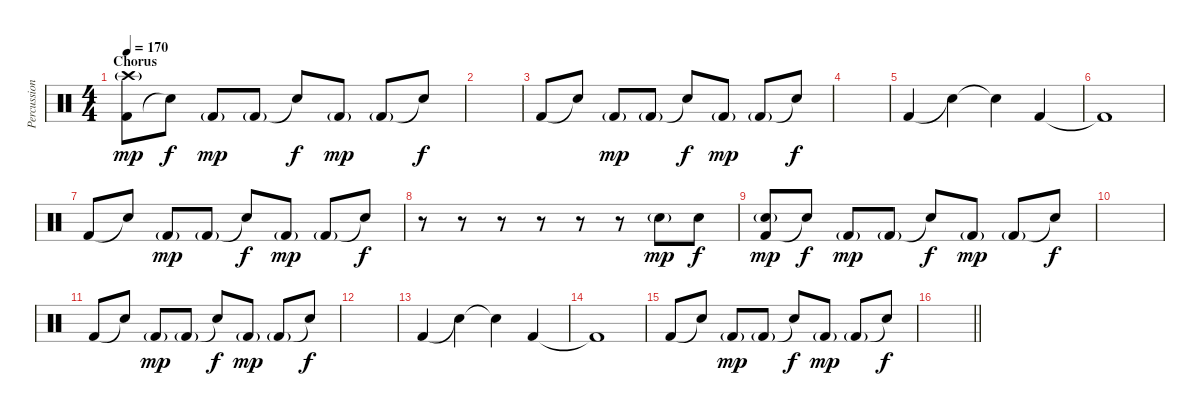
\track ("Percussion" "Percussion") {instrument percussion}
\staff {score}
\articulation defaults
\ts (4 4)
\section ("" "Chorus")
\tempo 170
\clef neutral
\ks c
("Kick (hit) 2" "Crash high (hit)"{g}).8{dy mp} "Snare (hit)"{t}.8{dy f} "Kick (hit) 2"{g}.8{dy mp} "Kick (hit) 2"{g}.8 "Snare (hit)"{t}.8{dy f} "Kick (hit) 2"{g}.8{dy mp} "Kick (hit) 2"{g}.8 "Snare (hit)"{t}.8{dy f} |
|
"Kick (hit) 2".8 "Snare (hit)"{t}.8 "Kick (hit) 2"{g}.8{dy mp} "Kick (hit) 2"{g}.8 "Snare (hit)"{t}.8{dy f} "Kick (hit) 2"{g}.8{dy mp} "Kick (hit) 2"{g}.8 "Snare (hit)"{t}.8{dy f} |
|
"Kick (hit) 2".4 "Snare (hit)"{t}.4 "Snare (hit)"{t}.4 "Kick (hit) 2".4 |
"Kick (hit) 2"{t}.1 |
"Kick (hit) 2".8 "Snare (hit)"{t}.8 "Kick (hit) 2"{g}.8{dy mp} "Kick (hit) 2"{g}.8 "Snare (hit)"{t}.8{dy f} "Kick (hit) 2"{g}.8{dy mp} "Kick (hit) 2"{g}.8 "Snare (hit)"{t}.8{dy f} |
r.8 r.8 r.8 r.8 r.8 r.8 "Electric Snare (hit)"{g}.8{dy mp} "Electric Snare (hit)".8{dy f} |
("Kick (hit) 2" "Electric Snare (hit)"{g}).8{dy mp} "Snare (hit)"{t}.8{dy f} "Kick (hit) 2"{g}.8{dy mp} "Kick (hit) 2"{g}.8 "Snare (hit)"{t}.8{dy f} "Kick (hit) 2"{g}.8{dy mp} "Kick (hit) 2"{g}.8 "Snare (hit)"{t}.8{dy f} |
|
"Kick (hit) 2".8 "Snare (hit)"{t}.8 "Kick (hit) 2"{g}.8{dy mp} "Kick (hit) 2"{g}.8 "Snare (hit)"{t}.8{dy f} "Kick (hit) 2"{g}.8{dy mp} "Kick (hit) 2"{g}.8 "Snare (hit)"{t}.8{dy f} |
|
"Kick (hit) 2".4 "Snare (hit)"{t}.4 "Snare (hit)"{t}.4 "Kick (hit) 2".4 |
"Kick (hit) 2"{t}.1 |
"Kick (hit) 2".8 "Snare (hit)"{t}.8 "Kick (hit) 2"{g}.8{dy mp} "Kick (hit) 2"{g}.8 "Snare (hit)"{t}.8{dy f} "Kick (hit) 2"{g}.8{dy mp} "Kick (hit) 2"{g}.8 "Snare (hit)"{t}.8{dy f} |
\barLineRight lightlight
